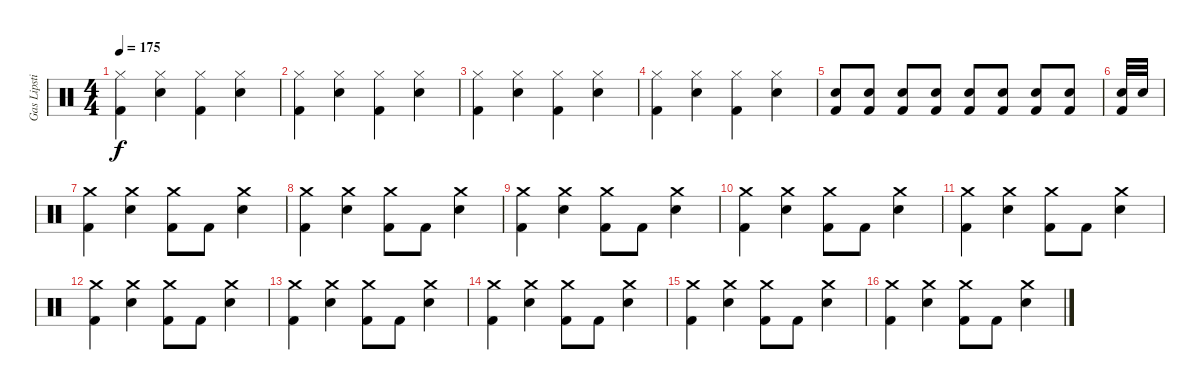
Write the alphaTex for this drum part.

\track ("Gas Lipstick" "Gas Lipsti") {instrument percussion}
\staff {score}
\articulation defaults
\ts (4 4)
\tempo 175
\clef neutral
\ks c
("Kick (hit) 2" "Hi-Hat (closed)").4{dy f} ("Snare (hit) 2" "Hi-Hat (closed)").4 ("Kick (hit) 2" "Hi-Hat (closed)").4 ("Snare (hit) 2" "Hi-Hat (closed)").4 |
("Kick (hit) 2" "Hi-Hat (closed)").4 ("Snare (hit) 2" "Hi-Hat (closed)").4 ("Kick (hit) 2" "Hi-Hat (closed)").4 ("Snare (hit) 2" "Hi-Hat (closed)").4 |
("Kick (hit) 2" "Hi-Hat (closed)").4 ("Snare (hit) 2" "Hi-Hat (closed)").4 ("Kick (hit) 2" "Hi-Hat (closed)").4 ("Snare (hit) 2" "Hi-Hat (closed)").4 |
("Kick (hit) 2" "Hi-Hat (closed)").4 ("Snare (hit) 2" "Hi-Hat (closed)").4 ("Kick (hit) 2" "Hi-Hat (closed)").4 ("Snare (hit) 2" "Hi-Hat (closed)").4 |
("Kick (hit) 2" "Snare (hit) 2").8 ("Kick (hit) 2" "Snare (hit) 2").8 ("Kick (hit) 2" "Snare (hit) 2").8 ("Kick (hit) 2" "Snare (hit) 2").8 ("Kick (hit) 2" "Snare (hit) 2").8 ("Kick (hit) 2" "Snare (hit) 2").8 ("Kick (hit) 2" "Snare (hit) 2").8 ("Kick (hit) 2" "Snare (hit) 2").8 |
("Kick (hit) 2" "Snare (hit) 2").32 "Snare (hit) 2".32 |
("Kick (hit) 2" "Crash medium (hit)").4 ("Snare (hit) 2" "Crash medium (hit)").4 ("Kick (hit) 2" "Crash medium (hit)").8 "Kick (hit) 2".8 ("Snare (hit) 2" "Crash medium (hit)").4 |
("Kick (hit) 2" "Crash medium (hit)").4 ("Snare (hit) 2" "Crash medium (hit)").4 ("Kick (hit) 2" "Crash medium (hit)").8 "Kick (hit) 2".8 ("Snare (hit) 2" "Crash medium (hit)").4 |
("Kick (hit) 2" "Crash medium (hit)").4 ("Snare (hit) 2" "Crash medium (hit)").4 ("Kick (hit) 2" "Crash medium (hit)").8 "Kick (hit) 2".8 ("Snare (hit) 2" "Crash medium (hit)").4 |
("Kick (hit) 2" "Crash medium (hit)").4 ("Snare (hit) 2" "Crash medium (hit)").4 ("Kick (hit) 2" "Crash medium (hit)").8 "Kick (hit) 2".8 ("Snare (hit) 2" "Crash medium (hit)").4 |
("Kick (hit) 2" "Crash medium (hit)").4 ("Snare (hit) 2" "Crash medium (hit)").4 ("Kick (hit) 2" "Crash medium (hit)").8 "Kick (hit) 2".8 ("Snare (hit) 2" "Crash medium (hit)").4 |
("Kick (hit) 2" "Crash medium (hit)").4 ("Snare (hit) 2" "Crash medium (hit)").4 ("Kick (hit) 2" "Crash medium (hit)").8 "Kick (hit) 2".8 ("Snare (hit) 2" "Crash medium (hit)").4 |
("Kick (hit) 2" "Crash medium (hit)").4 ("Snare (hit) 2" "Crash medium (hit)").4 ("Kick (hit) 2" "Crash medium (hit)").8 "Kick (hit) 2".8 ("Snare (hit) 2" "Crash medium (hit)").4 |
("Kick (hit) 2" "Crash medium (hit)").4 ("Snare (hit) 2" "Crash medium (hit)").4 ("Kick (hit) 2" "Crash medium (hit)").8 "Kick (hit) 2".8 ("Snare (hit) 2" "Crash medium (hit)").4 |
("Kick (hit) 2" "Crash medium (hit)").4 ("Snare (hit) 2" "Crash medium (hit)").4 ("Kick (hit) 2" "Crash medium (hit)").8 "Kick (hit) 2".8 ("Snare (hit) 2" "Crash medium (hit)").4 |
("Kick (hit) 2" "Crash medium (hit)").4 ("Snare (hit) 2" "Crash medium (hit)").4 ("Kick (hit) 2" "Crash medium (hit)").8 "Kick (hit) 2".8 ("Snare (hit) 2" "Crash medium (hit)").4
